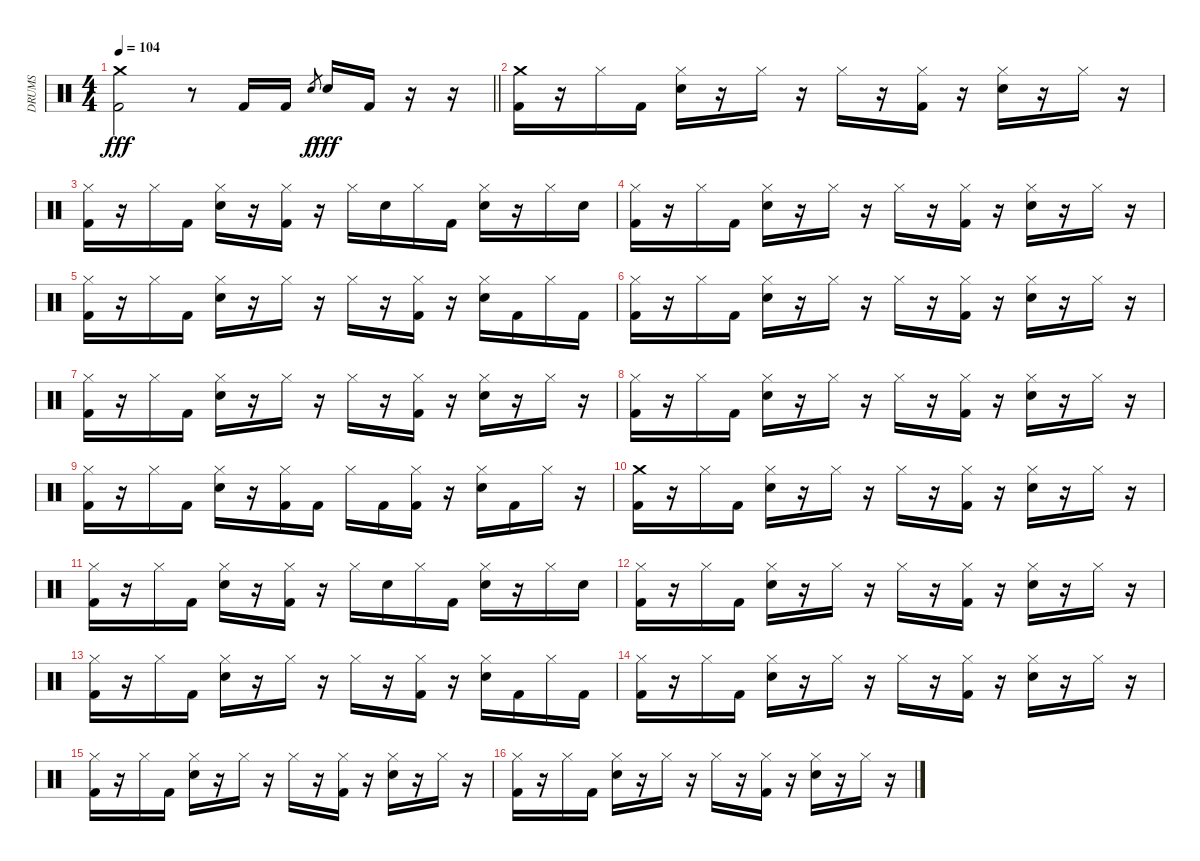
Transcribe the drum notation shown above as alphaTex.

\track ("DRUMS" "DRUMS") {instrument percussion}
\staff {score}
\articulation defaults
\ts (4 4)
\tempo 104
\clef neutral
\barLineRight lightlight
\ks c
("Crash medium (hit)" "Kick (hit) 2").2{dy fff} r.8 "Kick (hit) 2".16 "Kick (hit) 2".16 "Snare (hit) 2".8{gr dy f} "Snare (hit) 2".16{dy fff} "Kick (hit) 2".16 r.16 r.16 |
\section ("" "")
("Crash medium (hit)" "Kick (hit) 2").16 r.16 "Hi-Hat (closed)".16 "Kick (hit) 2".16 ("Hi-Hat (closed)" "Snare (hit) 2").16 r.16 "Hi-Hat (closed)".16 r.16 "Hi-Hat (closed)".16 r.16 ("Hi-Hat (closed)" "Kick (hit) 2").16 r.16 ("Hi-Hat (closed)" "Snare (hit) 2").16 r.16 "Hi-Hat (closed)".16 r.16 |
("Hi-Hat (closed)" "Kick (hit) 2").16 r.16 "Hi-Hat (closed)".16 "Kick (hit) 2".16 ("Hi-Hat (closed)" "Snare (hit) 2").16 r.16 ("Hi-Hat (closed)" "Kick (hit) 2").16 r.16 "Hi-Hat (closed)".16 "Snare (hit) 2".16 "Hi-Hat (closed)".16 "Kick (hit) 2".16 ("Hi-Hat (closed)" "Snare (hit) 2").16 r.16 "Hi-Hat (closed)".16 "Snare (hit) 2".16 |
("Hi-Hat (closed)" "Kick (hit) 2").16 r.16 "Hi-Hat (closed)".16 "Kick (hit) 2".16 ("Hi-Hat (closed)" "Snare (hit) 2").16 r.16 "Hi-Hat (closed)".16 r.16 "Hi-Hat (closed)".16 r.16 ("Hi-Hat (closed)" "Kick (hit) 2").16 r.16 ("Hi-Hat (closed)" "Snare (hit) 2").16 r.16 "Hi-Hat (closed)".16 r.16 |
("Hi-Hat (closed)" "Kick (hit) 2").16 r.16 "Hi-Hat (closed)".16 "Kick (hit) 2".16 ("Hi-Hat (closed)" "Snare (hit) 2").16 r.16 "Hi-Hat (closed)".16 r.16 "Hi-Hat (closed)".16 r.16 ("Hi-Hat (closed)" "Kick (hit) 2").16 r.16 ("Hi-Hat (closed)" "Snare (hit) 2").16 "Kick (hit) 2".16 "Hi-Hat (closed)".16 "Kick (hit) 2".16 |
("Hi-Hat (closed)" "Kick (hit) 2").16 r.16 "Hi-Hat (closed)".16 "Kick (hit) 2".16 ("Hi-Hat (closed)" "Snare (hit) 2").16 r.16 "Hi-Hat (closed)".16 r.16 "Hi-Hat (closed)".16 r.16 ("Hi-Hat (closed)" "Kick (hit) 2").16 r.16 ("Hi-Hat (closed)" "Snare (hit) 2").16 r.16 "Hi-Hat (closed)".16 r.16 |
("Hi-Hat (closed)" "Kick (hit) 2").16 r.16 "Hi-Hat (closed)".16 "Kick (hit) 2".16 ("Hi-Hat (closed)" "Snare (hit) 2").16 r.16 "Hi-Hat (closed)".16 r.16 "Hi-Hat (closed)".16 r.16 ("Hi-Hat (closed)" "Kick (hit) 2").16 r.16 ("Hi-Hat (closed)" "Snare (hit) 2").16 r.16 "Hi-Hat (closed)".16 r.16 |
("Hi-Hat (closed)" "Kick (hit) 2").16 r.16 "Hi-Hat (closed)".16 "Kick (hit) 2".16 ("Hi-Hat (closed)" "Snare (hit) 2").16 r.16 "Hi-Hat (closed)".16 r.16 "Hi-Hat (closed)".16 r.16 ("Hi-Hat (closed)" "Kick (hit) 2").16 r.16 ("Hi-Hat (closed)" "Snare (hit) 2").16 r.16 "Hi-Hat (closed)".16 r.16 |
("Hi-Hat (closed)" "Kick (hit) 2").16 r.16 "Hi-Hat (closed)".16 "Kick (hit) 2".16 ("Hi-Hat (closed)" "Snare (hit) 2").16 r.16 ("Hi-Hat (closed)" "Kick (hit) 2").16 "Kick (hit) 2".16 "Hi-Hat (closed)".16 "Kick (hit) 2".16 ("Hi-Hat (closed)" "Kick (hit) 2").16 r.16 ("Hi-Hat (closed)" "Snare (hit) 2").16 "Kick (hit) 2".16 "Hi-Hat (closed)".16 r.16 |
("Crash medium (hit)" "Kick (hit) 2").16 r.16 "Hi-Hat (closed)".16 "Kick (hit) 2".16 ("Hi-Hat (closed)" "Snare (hit) 2").16 r.16 "Hi-Hat (closed)".16 r.16 "Hi-Hat (closed)".16 r.16 ("Hi-Hat (closed)" "Kick (hit) 2").16 r.16 ("Hi-Hat (closed)" "Snare (hit) 2").16 r.16 "Hi-Hat (closed)".16 r.16 |
("Hi-Hat (closed)" "Kick (hit) 2").16 r.16 "Hi-Hat (closed)".16 "Kick (hit) 2".16 ("Hi-Hat (closed)" "Snare (hit) 2").16 r.16 ("Hi-Hat (closed)" "Kick (hit) 2").16 r.16 "Hi-Hat (closed)".16 "Snare (hit) 2".16 "Hi-Hat (closed)".16 "Kick (hit) 2".16 ("Hi-Hat (closed)" "Snare (hit) 2").16 r.16 "Hi-Hat (closed)".16 "Snare (hit) 2".16 |
("Hi-Hat (closed)" "Kick (hit) 2").16 r.16 "Hi-Hat (closed)".16 "Kick (hit) 2".16 ("Hi-Hat (closed)" "Snare (hit) 2").16 r.16 "Hi-Hat (closed)".16 r.16 "Hi-Hat (closed)".16 r.16 ("Hi-Hat (closed)" "Kick (hit) 2").16 r.16 ("Hi-Hat (closed)" "Snare (hit) 2").16 r.16 "Hi-Hat (closed)".16 r.16 |
("Hi-Hat (closed)" "Kick (hit) 2").16 r.16 "Hi-Hat (closed)".16 "Kick (hit) 2".16 ("Hi-Hat (closed)" "Snare (hit) 2").16 r.16 "Hi-Hat (closed)".16 r.16 "Hi-Hat (closed)".16 r.16 ("Hi-Hat (closed)" "Kick (hit) 2").16 r.16 ("Hi-Hat (closed)" "Snare (hit) 2").16 "Kick (hit) 2".16 "Hi-Hat (closed)".16 "Kick (hit) 2".16 |
("Hi-Hat (closed)" "Kick (hit) 2").16 r.16 "Hi-Hat (closed)".16 "Kick (hit) 2".16 ("Hi-Hat (closed)" "Snare (hit) 2").16 r.16 "Hi-Hat (closed)".16 r.16 "Hi-Hat (closed)".16 r.16 ("Hi-Hat (closed)" "Kick (hit) 2").16 r.16 ("Hi-Hat (closed)" "Snare (hit) 2").16 r.16 "Hi-Hat (closed)".16 r.16 |
("Hi-Hat (closed)" "Kick (hit) 2").16 r.16 "Hi-Hat (closed)".16 "Kick (hit) 2".16 ("Hi-Hat (closed)" "Snare (hit) 2").16 r.16 "Hi-Hat (closed)".16 r.16 "Hi-Hat (closed)".16 r.16 ("Hi-Hat (closed)" "Kick (hit) 2").16 r.16 ("Hi-Hat (closed)" "Snare (hit) 2").16 r.16 "Hi-Hat (closed)".16 r.16 |
("Hi-Hat (closed)" "Kick (hit) 2").16 r.16 "Hi-Hat (closed)".16 "Kick (hit) 2".16 ("Hi-Hat (closed)" "Snare (hit) 2").16 r.16 "Hi-Hat (closed)".16 r.16 "Hi-Hat (closed)".16 r.16 ("Hi-Hat (closed)" "Kick (hit) 2").16 r.16 ("Hi-Hat (closed)" "Snare (hit) 2").16 r.16 "Hi-Hat (closed)".16 r.16
